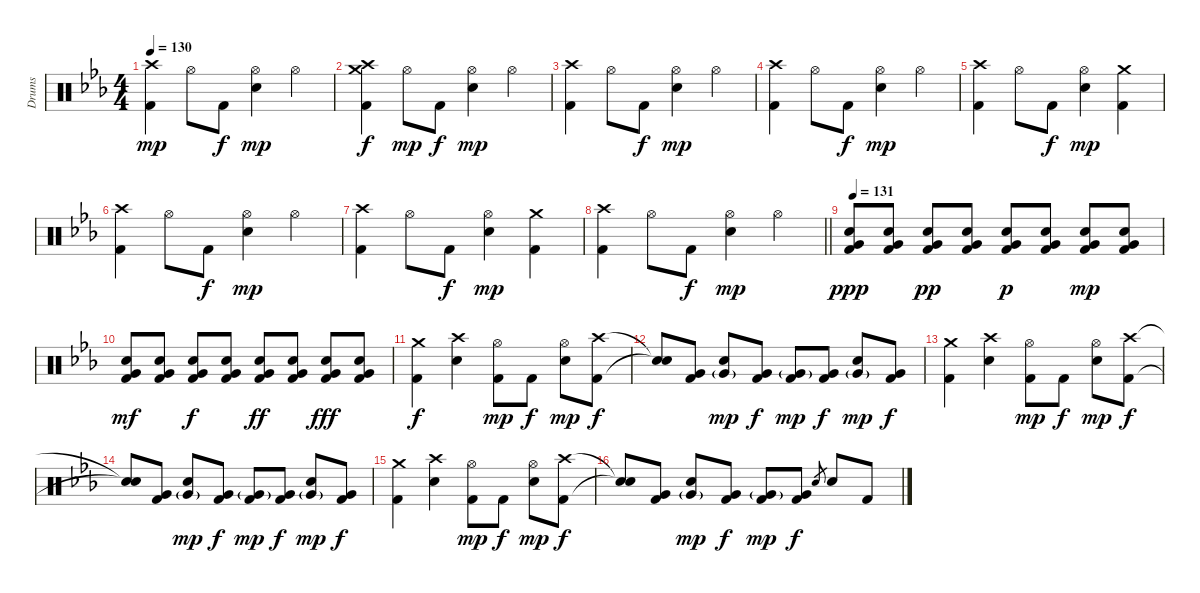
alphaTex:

\track ("Drums" "Drums") {instrument percussion}
\staff {score}
\articulation defaults
\ts (4 4)
\tempo 130
\clef neutral
\ks cminor
("Crash high (hit)" "Kick (hit) 2").4{dy mp} "Hi-Hat (open)".8 "Kick (hit) 2".8{dy f} ("Hi-Hat (open)" "Electric Snare (hit)").4{dy mp} "Hi-Hat (open)".4 |
("Crash medium (hit)" "Crash high (hit)" "Kick (hit) 2").4{dy f} "Hi-Hat (open)".8{dy mp} "Kick (hit) 2".8{dy f} ("Hi-Hat (open)" "Electric Snare (hit)").4{dy mp} "Hi-Hat (open)".4 |
("Crash high (hit)" "Kick (hit) 2").4 "Hi-Hat (open)".8 "Kick (hit) 2".8{dy f} ("Hi-Hat (open)" "Electric Snare (hit)").4{dy mp} "Hi-Hat (open)".4 |
("Crash high (hit)" "Kick (hit) 2").4 "Hi-Hat (open)".8 "Kick (hit) 2".8{dy f} ("Hi-Hat (open)" "Electric Snare (hit)").4{dy mp} "Hi-Hat (open)".4 |
("Crash high (hit)" "Kick (hit) 2").4 "Hi-Hat (open)".8 "Kick (hit) 2".8{dy f} ("Hi-Hat (open)" "Electric Snare (hit)").4{dy mp} ("Crash medium (hit)" "Kick (hit) 2").4 |
("Crash high (hit)" "Kick (hit) 2").4 "Hi-Hat (open)".8 "Kick (hit) 2".8{dy f} ("Hi-Hat (open)" "Electric Snare (hit)").4{dy mp} "Hi-Hat (open)".4 |
("Crash high (hit)" "Kick (hit) 2").4 "Hi-Hat (open)".8 "Kick (hit) 2".8{dy f} ("Hi-Hat (open)" "Electric Snare (hit)").4{dy mp} ("Crash medium (hit)" "Kick (hit) 2").4 |
\barLineRight lightlight
("Crash high (hit)" "Kick (hit) 2").4 "Hi-Hat (open)".8 "Kick (hit) 2".8{dy f} ("Hi-Hat (open)" "Electric Snare (hit)").4{dy mp} "Hi-Hat (open)".4 |
\tempo 131
("Electric Snare (hit)" "Very Low Tom (hit)" "Kick (hit) 2").8{dy ppp} ("Electric Snare (hit)" "Very Low Tom (hit)" "Kick (hit) 2").8 ("Electric Snare (hit)" "Very Low Tom (hit)" "Kick (hit) 2").8{dy pp} ("Electric Snare (hit)" "Very Low Tom (hit)" "Kick (hit) 2").8 ("Electric Snare (hit)" "Very Low Tom (hit)" "Kick (hit) 2").8{dy p} ("Electric Snare (hit)" "Very Low Tom (hit)" "Kick (hit) 2").8 ("Electric Snare (hit)" "Very Low Tom (hit)" "Kick (hit) 2").8{dy mp} ("Electric Snare (hit)" "Very Low Tom (hit)" "Kick (hit) 2").8 |
("Electric Snare (hit)" "Very Low Tom (hit)" "Kick (hit) 2").8{dy mf} ("Electric Snare (hit)" "Very Low Tom (hit)" "Kick (hit) 2").8 ("Electric Snare (hit)" "Very Low Tom (hit)" "Kick (hit) 2").8{dy f} ("Electric Snare (hit)" "Very Low Tom (hit)" "Kick (hit) 2").8 ("Electric Snare (hit)" "Very Low Tom (hit)" "Kick (hit) 2").8{dy ff} ("Electric Snare (hit)" "Very Low Tom (hit)" "Kick (hit) 2").8 ("Electric Snare (hit)" "Very Low Tom (hit)" "Kick (hit) 2").8{dy fff} ("Electric Snare (hit)" "Very Low Tom (hit)" "Kick (hit) 2").8 |
("Crash medium (hit)" "Kick (hit) 2").4{dy f} ("Crash high (hit)" "Electric Snare (hit)").4 ("Hi-Hat (open)" "Kick (hit) 2").8{dy mp} "Kick (hit) 2".8{dy f} ("Hi-Hat (open)" "Electric Snare (hit)").8{dy mp} ("Crash high (hit)" "Kick (hit) 2").8{dy f} |
("Snare (hit)"{t} "Snare (hit)"{t}).8 ("Very Low Tom (hit)" "Kick (hit) 2").8 ("Electric Snare (hit)" "Very Low Tom (hit)"{g}).8{dy mp} ("Very Low Tom (hit)" "Kick (hit) 2").8{dy f} ("Very Low Tom (hit)"{g} "Kick (hit) 2").8{dy mp} ("Very Low Tom (hit)" "Kick (hit) 2").8{dy f} ("Electric Snare (hit)" "Very Low Tom (hit)"{g}).8{dy mp} ("Very Low Tom (hit)" "Kick (hit) 2").8{dy f} |
("Crash medium (hit)" "Kick (hit) 2").4 ("Crash high (hit)" "Electric Snare (hit)").4 ("Hi-Hat (open)" "Kick (hit) 2").8{dy mp} "Kick (hit) 2".8{dy f} ("Hi-Hat (open)" "Electric Snare (hit)").8{dy mp} ("Crash high (hit)" "Kick (hit) 2").8{dy f} |
("Snare (hit)"{t} "Snare (hit)"{t}).8 ("Very Low Tom (hit)" "Kick (hit) 2").8 ("Electric Snare (hit)" "Very Low Tom (hit)"{g}).8{dy mp} ("Very Low Tom (hit)" "Kick (hit) 2").8{dy f} ("Very Low Tom (hit)"{g} "Kick (hit) 2").8{dy mp} ("Very Low Tom (hit)" "Kick (hit) 2").8{dy f} ("Electric Snare (hit)" "Very Low Tom (hit)"{g}).8{dy mp} ("Very Low Tom (hit)" "Kick (hit) 2").8{dy f} |
("Crash medium (hit)" "Kick (hit) 2").4 ("Crash high (hit)" "Electric Snare (hit)").4 ("Hi-Hat (open)" "Kick (hit) 2").8{dy mp} "Kick (hit) 2".8{dy f} ("Hi-Hat (open)" "Electric Snare (hit)").8{dy mp} ("Crash high (hit)" "Kick (hit) 2").8{dy f} |
("Snare (hit)"{t} "Snare (hit)"{t}).8 ("Very Low Tom (hit)" "Kick (hit) 2").8 ("Electric Snare (hit)" "Very Low Tom (hit)"{g}).8{dy mp} ("Very Low Tom (hit)" "Kick (hit) 2").8{dy f} ("Very Low Tom (hit)"{g} "Kick (hit) 2").8{dy mp} ("Very Low Tom (hit)" "Kick (hit) 2").8{dy f} "Electric Snare (hit)".8{gr} "Electric Snare (hit)".8 "Kick (hit) 2".8
